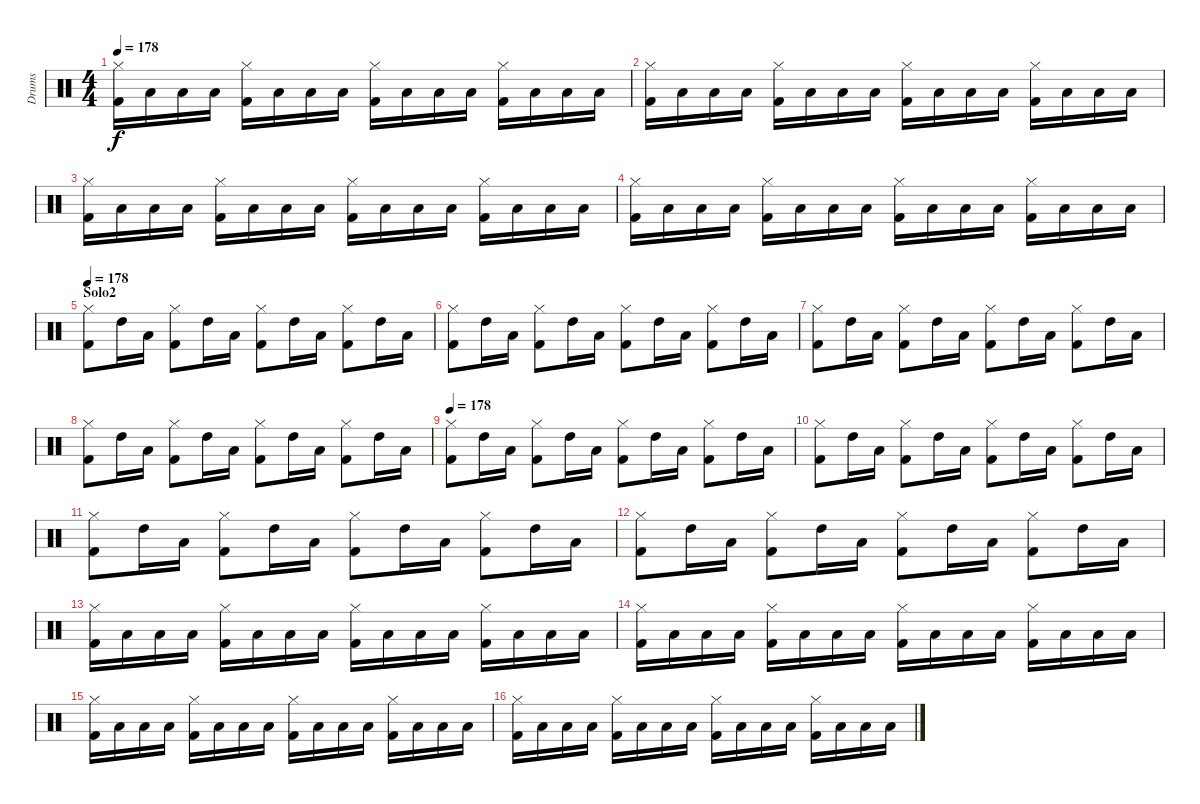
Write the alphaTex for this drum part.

\track ("Drums" "Drums") {instrument percussion}
\staff {score}
\articulation defaults
\ts (4 4)
\tempo 178
\clef neutral
\ks c
("Kick (hit) 2" "Hi-Hat (closed)").16{dy f} "Low Tom (hit)".16 "Low Tom (hit)".16 "Low Tom (hit)".16 ("Kick (hit) 2" "Hi-Hat (closed)").16 "Low Tom (hit)".16 "Low Tom (hit)".16 "Low Tom (hit)".16 ("Kick (hit) 2" "Hi-Hat (closed)").16 "Low Tom (hit)".16 "Low Tom (hit)".16 "Low Tom (hit)".16 ("Hi-Hat (closed)" "Kick (hit) 2").16 "Low Tom (hit)".16 "Low Tom (hit)".16 "Low Tom (hit)".16 |
("Kick (hit) 2" "Hi-Hat (closed)").16 "Low Tom (hit)".16 "Low Tom (hit)".16 "Low Tom (hit)".16 ("Kick (hit) 2" "Hi-Hat (closed)").16 "Low Tom (hit)".16 "Low Tom (hit)".16 "Low Tom (hit)".16 ("Kick (hit) 2" "Hi-Hat (closed)").16 "Low Tom (hit)".16 "Low Tom (hit)".16 "Low Tom (hit)".16 ("Hi-Hat (closed)" "Kick (hit) 2").16 "Low Tom (hit)".16 "Low Tom (hit)".16 "Low Tom (hit)".16 |
("Kick (hit) 2" "Hi-Hat (closed)").16 "Low Tom (hit)".16 "Low Tom (hit)".16 "Low Tom (hit)".16 ("Kick (hit) 2" "Hi-Hat (closed)").16 "Low Tom (hit)".16 "Low Tom (hit)".16 "Low Tom (hit)".16 ("Kick (hit) 2" "Hi-Hat (closed)").16 "Low Tom (hit)".16 "Low Tom (hit)".16 "Low Tom (hit)".16 ("Hi-Hat (closed)" "Kick (hit) 2").16 "Low Tom (hit)".16 "Low Tom (hit)".16 "Low Tom (hit)".16 |
("Kick (hit) 2" "Hi-Hat (closed)").16 "Low Tom (hit)".16 "Low Tom (hit)".16 "Low Tom (hit)".16 ("Kick (hit) 2" "Hi-Hat (closed)").16 "Low Tom (hit)".16 "Low Tom (hit)".16 "Low Tom (hit)".16 ("Kick (hit) 2" "Hi-Hat (closed)").16 "Low Tom (hit)".16 "Low Tom (hit)".16 "Low Tom (hit)".16 ("Hi-Hat (closed)" "Kick (hit) 2").16 "Low Tom (hit)".16 "Low Tom (hit)".16 "Low Tom (hit)".16 |
\section ("" "Solo2")
\tempo 178
("Hi-Hat (closed)" "Kick (hit) 2").8 "High Tom (hit)".16 "Low Tom (hit)".16 ("Hi-Hat (closed)" "Kick (hit) 2").8 "High Tom (hit)".16 "Low Tom (hit)".16 ("Hi-Hat (closed)" "Kick (hit) 2").8 "High Tom (hit)".16 "Low Tom (hit)".16 ("Hi-Hat (closed)" "Kick (hit) 2").8 "High Tom (hit)".16 "Low Tom (hit)".16 |
("Hi-Hat (closed)" "Kick (hit) 2").8 "High Tom (hit)".16 "Low Tom (hit)".16 ("Hi-Hat (closed)" "Kick (hit) 2").8 "High Tom (hit)".16 "Low Tom (hit)".16 ("Hi-Hat (closed)" "Kick (hit) 2").8 "High Tom (hit)".16 "Low Tom (hit)".16 ("Hi-Hat (closed)" "Kick (hit) 2").8 "High Tom (hit)".16 "Low Tom (hit)".16 |
("Hi-Hat (closed)" "Kick (hit) 2").8 "High Tom (hit)".16 "Low Tom (hit)".16 ("Hi-Hat (closed)" "Kick (hit) 2").8 "High Tom (hit)".16 "Low Tom (hit)".16 ("Hi-Hat (closed)" "Kick (hit) 2").8 "High Tom (hit)".16 "Low Tom (hit)".16 ("Hi-Hat (closed)" "Kick (hit) 2").8 "High Tom (hit)".16 "Low Tom (hit)".16 |
("Hi-Hat (closed)" "Kick (hit) 2").8 "High Tom (hit)".16 "Low Tom (hit)".16 ("Hi-Hat (closed)" "Kick (hit) 2").8 "High Tom (hit)".16 "Low Tom (hit)".16 ("Hi-Hat (closed)" "Kick (hit) 2").8 "High Tom (hit)".16 "Low Tom (hit)".16 ("Hi-Hat (closed)" "Kick (hit) 2").8 "High Tom (hit)".16 "Low Tom (hit)".16 |
\tempo 178
("Hi-Hat (closed)" "Kick (hit) 2").8 "High Tom (hit)".16 "Low Tom (hit)".16 ("Hi-Hat (closed)" "Kick (hit) 2").8 "High Tom (hit)".16 "Low Tom (hit)".16 ("Hi-Hat (closed)" "Kick (hit) 2").8 "High Tom (hit)".16 "Low Tom (hit)".16 ("Hi-Hat (closed)" "Kick (hit) 2").8 "High Tom (hit)".16 "Low Tom (hit)".16 |
("Hi-Hat (closed)" "Kick (hit) 2").8 "High Tom (hit)".16 "Low Tom (hit)".16 ("Hi-Hat (closed)" "Kick (hit) 2").8 "High Tom (hit)".16 "Low Tom (hit)".16 ("Hi-Hat (closed)" "Kick (hit) 2").8 "High Tom (hit)".16 "Low Tom (hit)".16 ("Hi-Hat (closed)" "Kick (hit) 2").8 "High Tom (hit)".16 "Low Tom (hit)".16 |
("Hi-Hat (closed)" "Kick (hit) 2").8 "High Tom (hit)".16 "Low Tom (hit)".16 ("Hi-Hat (closed)" "Kick (hit) 2").8 "High Tom (hit)".16 "Low Tom (hit)".16 ("Hi-Hat (closed)" "Kick (hit) 2").8 "High Tom (hit)".16 "Low Tom (hit)".16 ("Hi-Hat (closed)" "Kick (hit) 2").8 "High Tom (hit)".16 "Low Tom (hit)".16 |
("Hi-Hat (closed)" "Kick (hit) 2").8 "High Tom (hit)".16 "Low Tom (hit)".16 ("Hi-Hat (closed)" "Kick (hit) 2").8 "High Tom (hit)".16 "Low Tom (hit)".16 ("Hi-Hat (closed)" "Kick (hit) 2").8 "High Tom (hit)".16 "Low Tom (hit)".16 ("Hi-Hat (closed)" "Kick (hit) 2").8 "High Tom (hit)".16 "Low Tom (hit)".16 |
("Kick (hit) 2" "Hi-Hat (closed)").16 "Low Tom (hit)".16 "Low Tom (hit)".16 "Low Tom (hit)".16 ("Kick (hit) 2" "Hi-Hat (closed)").16 "Low Tom (hit)".16 "Low Tom (hit)".16 "Low Tom (hit)".16 ("Kick (hit) 2" "Hi-Hat (closed)").16 "Low Tom (hit)".16 "Low Tom (hit)".16 "Low Tom (hit)".16 ("Hi-Hat (closed)" "Kick (hit) 2").16 "Low Tom (hit)".16 "Low Tom (hit)".16 "Low Tom (hit)".16 |
("Kick (hit) 2" "Hi-Hat (closed)").16 "Low Tom (hit)".16 "Low Tom (hit)".16 "Low Tom (hit)".16 ("Kick (hit) 2" "Hi-Hat (closed)").16 "Low Tom (hit)".16 "Low Tom (hit)".16 "Low Tom (hit)".16 ("Kick (hit) 2" "Hi-Hat (closed)").16 "Low Tom (hit)".16 "Low Tom (hit)".16 "Low Tom (hit)".16 ("Hi-Hat (closed)" "Kick (hit) 2").16 "Low Tom (hit)".16 "Low Tom (hit)".16 "Low Tom (hit)".16 |
("Kick (hit) 2" "Hi-Hat (closed)").16 "Low Tom (hit)".16 "Low Tom (hit)".16 "Low Tom (hit)".16 ("Kick (hit) 2" "Hi-Hat (closed)").16 "Low Tom (hit)".16 "Low Tom (hit)".16 "Low Tom (hit)".16 ("Kick (hit) 2" "Hi-Hat (closed)").16 "Low Tom (hit)".16 "Low Tom (hit)".16 "Low Tom (hit)".16 ("Hi-Hat (closed)" "Kick (hit) 2").16 "Low Tom (hit)".16 "Low Tom (hit)".16 "Low Tom (hit)".16 |
("Kick (hit) 2" "Hi-Hat (closed)").16 "Low Tom (hit)".16 "Low Tom (hit)".16 "Low Tom (hit)".16 ("Kick (hit) 2" "Hi-Hat (closed)").16 "Low Tom (hit)".16 "Low Tom (hit)".16 "Low Tom (hit)".16 ("Kick (hit) 2" "Hi-Hat (closed)").16 "Low Tom (hit)".16 "Low Tom (hit)".16 "Low Tom (hit)".16 ("Hi-Hat (closed)" "Kick (hit) 2").16 "Low Tom (hit)".16 "Low Tom (hit)".16 "Low Tom (hit)".16
